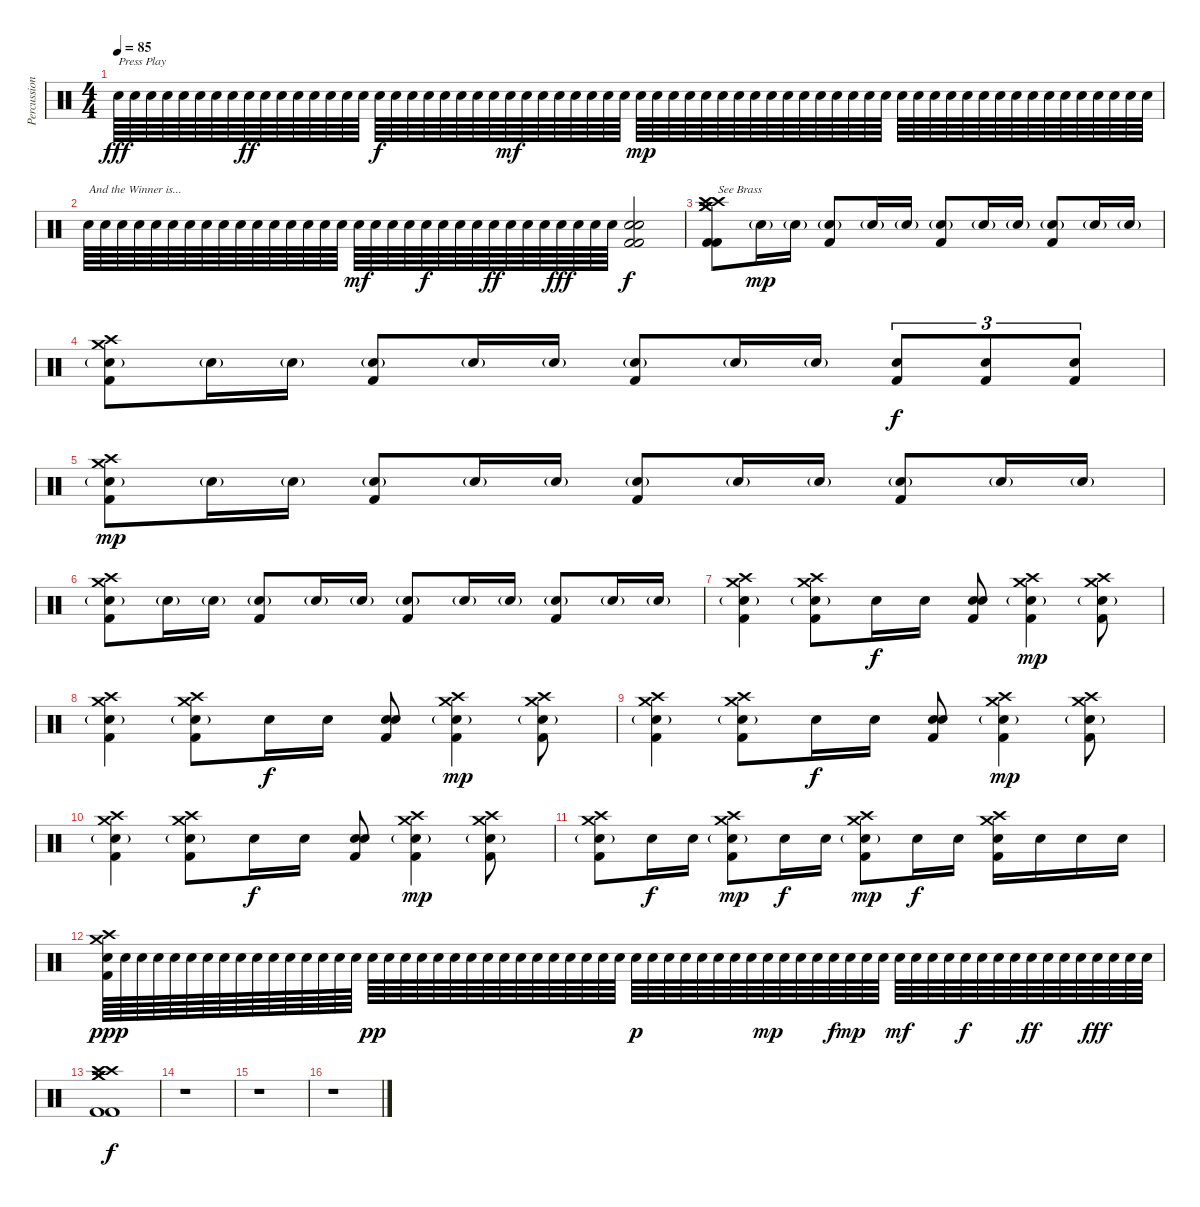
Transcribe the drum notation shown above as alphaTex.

\track ("Percussion" "Percussion") {instrument percussion}
\staff {score}
\articulation defaults
\ts (4 4)
\tempo 85
\clef neutral
\ks c "Snare (hit) 2".64{txt "Press Play" dy fff} "Snare (hit) 2".64 "Snare (hit) 2".64 "Snare (hit) 2".64 "Snare (hit) 2".64 "Snare (hit) 2".64 "Snare (hit) 2".64 "Snare (hit) 2".64 "Snare (hit) 2".64{dy ff} "Snare (hit) 2".64 "Snare (hit) 2".64 "Snare (hit) 2".64 "Snare (hit) 2".64 "Snare (hit) 2".64 "Snare (hit) 2".64 "Snare (hit) 2".64 "Snare (hit) 2".64{dy f} "Snare (hit) 2".64 "Snare (hit) 2".64 "Snare (hit) 2".64 "Snare (hit) 2".64 "Snare (hit) 2".64 "Snare (hit) 2".64 "Snare (hit) 2".64 "Snare (hit) 2".64{dy mf} "Snare (hit) 2".64 "Snare (hit) 2".64 "Snare (hit) 2".64 "Snare (hit) 2".64 "Snare (hit) 2".64 "Snare (hit) 2".64 "Snare (hit) 2".64 "Snare (hit) 2".64{dy mp} "Snare (hit) 2".64 "Snare (hit) 2".64 "Snare (hit) 2".64 "Snare (hit) 2".64 "Snare (hit) 2".64 "Snare (hit) 2".64 "Snare (hit) 2".64 "Snare (hit) 2".64 "Snare (hit) 2".64 "Snare (hit) 2".64 "Snare (hit) 2".64 "Snare (hit) 2".64 "Snare (hit) 2".64 "Snare (hit) 2".64 "Snare (hit) 2".64 "Snare (hit) 2".64 "Snare (hit) 2".64 "Snare (hit) 2".64 "Snare (hit) 2".64 "Snare (hit) 2".64 "Snare (hit) 2".64 "Snare (hit) 2".64 "Snare (hit) 2".64 "Snare (hit) 2".64 "Snare (hit) 2".64 "Snare (hit) 2".64 "Snare (hit) 2".64 "Snare (hit) 2".64 "Snare (hit) 2".64 "Snare (hit) 2".64 "Snare (hit) 2".64
|
"Snare (hit) 2".64{txt "And the Winner is..."} "Snare (hit) 2".64 "Snare (hit) 2".64 "Snare (hit) 2".64 "Snare (hit) 2".64 "Snare (hit) 2".64 "Snare (hit) 2".64 "Snare (hit) 2".64 "Snare (hit) 2".64 "Snare (hit) 2".64 "Snare (hit) 2".64 "Snare (hit) 2".64 "Snare (hit) 2".64 "Snare (hit) 2".64 "Snare (hit) 2".64 "Snare (hit) 2".64 "Snare (hit) 2".64{dy mf} "Snare (hit) 2".64 "Snare (hit) 2".64 "Snare (hit) 2".64 "Snare (hit) 2".64{dy f} "Snare (hit) 2".64 "Snare (hit) 2".64 "Snare (hit) 2".64 "Snare (hit) 2".64{dy ff} "Snare (hit) 2".64 "Snare (hit) 2".64 "Snare (hit) 2".64 "Snare (hit) 2".64{dy fff} "Snare (hit) 2".64 "Snare (hit) 2".64 "Snare (hit) 2".64 ("Snare (hit) 2" "Snare (hit) 2" "Kick (hit) 2" "Kick (hit) 2").2{dy f} |
("Crash high (hit)" "Crash high (hit)" "Crash medium (hit)" "Crash medium (hit)" "Kick (hit) 2" "Kick (hit) 2").8{txt "See Brass"} "Snare (hit) 2"{g}.16{dy mp} "Snare (hit) 2"{g}.16 ("Snare (hit) 2"{g} "Kick (hit) 2").8 "Snare (hit) 2"{g}.16 "Snare (hit) 2"{g}.16 ("Snare (hit) 2"{g} "Kick (hit) 2").8 "Snare (hit) 2"{g}.16 "Snare (hit) 2"{g}.16 ("Snare (hit) 2"{g} "Kick (hit) 2").8 "Snare (hit) 2"{g}.16 "Snare (hit) 2"{g}.16 |
("Crash high (hit)" "Crash medium (hit)" "Snare (hit) 2"{g} "Kick (hit) 2").8 "Snare (hit) 2"{g}.16 "Snare (hit) 2"{g}.16 ("Snare (hit) 2"{g} "Kick (hit) 2").8 "Snare (hit) 2"{g}.16 "Snare (hit) 2"{g}.16 ("Snare (hit) 2"{g} "Kick (hit) 2").8 "Snare (hit) 2"{g}.16 "Snare (hit) 2"{g}.16 ("Snare (hit) 2" "Kick (hit) 2").8{tu (3 2) dy f} ("Snare (hit) 2" "Kick (hit) 2").8{tu (3 2)} ("Snare (hit) 2" "Kick (hit) 2").8{tu (3 2)} |
("Crash high (hit)" "Crash medium (hit)" "Snare (hit) 2"{g} "Kick (hit) 2").8{dy mp} "Snare (hit) 2"{g}.16 "Snare (hit) 2"{g}.16 ("Snare (hit) 2"{g} "Kick (hit) 2").8 "Snare (hit) 2"{g}.16 "Snare (hit) 2"{g}.16 ("Snare (hit) 2"{g} "Kick (hit) 2").8 "Snare (hit) 2"{g}.16 "Snare (hit) 2"{g}.16 ("Snare (hit) 2"{g} "Kick (hit) 2").8 "Snare (hit) 2"{g}.16 "Snare (hit) 2"{g}.16 |
("Crash high (hit)" "Crash medium (hit)" "Snare (hit) 2"{g} "Kick (hit) 2").8 "Snare (hit) 2"{g}.16 "Snare (hit) 2"{g}.16 ("Snare (hit) 2"{g} "Kick (hit) 2").8 "Snare (hit) 2"{g}.16 "Snare (hit) 2"{g}.16 ("Snare (hit) 2"{g} "Kick (hit) 2").8 "Snare (hit) 2"{g}.16 "Snare (hit) 2"{g}.16 ("Snare (hit) 2"{g} "Kick (hit) 2").8 "Snare (hit) 2"{g}.16 "Snare (hit) 2"{g}.16 |
("Crash high (hit)" "Crash medium (hit)" "Snare (hit) 2"{g} "Kick (hit) 2").4 ("Crash high (hit)" "Crash medium (hit)" "Snare (hit) 2"{g} "Kick (hit) 2").8 "Snare (hit) 2".16{dy f} "Snare (hit) 2".16 ("Snare (hit) 2" "Snare (hit) 2" "Kick (hit) 2").8 ("Crash high (hit)" "Crash medium (hit)" "Snare (hit) 2"{g} "Kick (hit) 2").4{dy mp} ("Crash high (hit)" "Crash medium (hit)" "Snare (hit) 2"{g} "Kick (hit) 2").8 |
("Crash high (hit)" "Crash medium (hit)" "Snare (hit) 2"{g} "Kick (hit) 2").4 ("Crash high (hit)" "Crash medium (hit)" "Snare (hit) 2"{g} "Kick (hit) 2").8 "Snare (hit) 2".16{dy f} "Snare (hit) 2".16 ("Snare (hit) 2" "Snare (hit) 2" "Kick (hit) 2").8 ("Crash high (hit)" "Crash medium (hit)" "Snare (hit) 2"{g} "Kick (hit) 2").4{dy mp} ("Crash high (hit)" "Crash medium (hit)" "Snare (hit) 2"{g} "Kick (hit) 2").8 |
("Crash high (hit)" "Crash medium (hit)" "Snare (hit) 2"{g} "Kick (hit) 2").4 ("Crash high (hit)" "Crash medium (hit)" "Snare (hit) 2"{g} "Kick (hit) 2").8 "Snare (hit) 2".16{dy f} "Snare (hit) 2".16 ("Snare (hit) 2" "Snare (hit) 2" "Kick (hit) 2").8 ("Crash high (hit)" "Crash medium (hit)" "Snare (hit) 2"{g} "Kick (hit) 2").4{dy mp} ("Crash high (hit)" "Crash medium (hit)" "Snare (hit) 2"{g} "Kick (hit) 2").8 |
("Crash high (hit)" "Crash medium (hit)" "Snare (hit) 2"{g} "Kick (hit) 2").4 ("Crash high (hit)" "Crash medium (hit)" "Snare (hit) 2"{g} "Kick (hit) 2").8 "Snare (hit) 2".16{dy f} "Snare (hit) 2".16 ("Snare (hit) 2" "Snare (hit) 2" "Kick (hit) 2").8 ("Crash high (hit)" "Crash medium (hit)" "Snare (hit) 2"{g} "Kick (hit) 2").4{dy mp} ("Crash high (hit)" "Crash medium (hit)" "Snare (hit) 2"{g} "Kick (hit) 2").8 |
("Crash high (hit)" "Crash medium (hit)" "Snare (hit) 2"{g} "Kick (hit) 2").8 "Snare (hit) 2".16{dy f} "Snare (hit) 2".16 ("Crash high (hit)" "Crash medium (hit)" "Snare (hit) 2"{g} "Kick (hit) 2").8{dy mp} "Snare (hit) 2".16{dy f} "Snare (hit) 2".16 ("Crash high (hit)" "Crash medium (hit)" "Snare (hit) 2"{g} "Kick (hit) 2").8{dy mp} "Snare (hit) 2".16{dy f} "Snare (hit) 2".16 ("Crash high (hit)" "Crash medium (hit)" "Snare (hit) 2" "Kick (hit) 2").16 "Snare (hit) 2".16 "Snare (hit) 2".16 "Snare (hit) 2".16 |
("Crash high (hit)" "Crash medium (hit)" "Snare (hit) 2" "Kick (hit) 2").64{dy ppp} "Snare (hit) 2".64 "Snare (hit) 2".64 "Snare (hit) 2".64 "Snare (hit) 2".64 "Snare (hit) 2".64 "Snare (hit) 2".64 "Snare (hit) 2".64 "Snare (hit) 2".64 "Snare (hit) 2".64 "Snare (hit) 2".64 "Snare (hit) 2".64 "Snare (hit) 2".64 "Snare (hit) 2".64 "Snare (hit) 2".64 "Snare (hit) 2".64 "Snare (hit) 2".64{dy pp} "Snare (hit) 2".64 "Snare (hit) 2".64 "Snare (hit) 2".64 "Snare (hit) 2".64 "Snare (hit) 2".64 "Snare (hit) 2".64 "Snare (hit) 2".64 "Snare (hit) 2".64 "Snare (hit) 2".64 "Snare (hit) 2".64 "Snare (hit) 2".64 "Snare (hit) 2".64 "Snare (hit) 2".64 "Snare (hit) 2".64 "Snare (hit) 2".64 "Snare (hit) 2".64{dy p} "Snare (hit) 2".64 "Snare (hit) 2".64 "Snare (hit) 2".64 "Snare (hit) 2".64 "Snare (hit) 2".64 "Snare (hit) 2".64 "Snare (hit) 2".64 "Snare (hit) 2".64{dy mp} "Snare (hit) 2".64 "Snare (hit) 2".64 "Snare (hit) 2".64 "Snare (hit) 2".64{dy f} "Snare (hit) 2".64{dy mp} "Snare (hit) 2".64 "Snare (hit) 2".64 "Snare (hit) 2".64{dy mf} "Snare (hit) 2".64 "Snare (hit) 2".64 "Snare (hit) 2".64 "Snare (hit) 2".64{dy f} "Snare (hit) 2".64 "Snare (hit) 2".64 "Snare (hit) 2".64 "Snare (hit) 2".64{dy ff} "Snare (hit) 2".64 "Snare (hit) 2".64 "Snare (hit) 2".64 "Snare (hit) 2".64{dy fff} "Snare (hit) 2".64 "Snare (hit) 2".64 "Snare (hit) 2".64 |
("Crash high (hit)" "Crash high (hit)" "Crash medium (hit)" "Crash medium (hit)" "Kick (hit) 2" "Kick (hit) 2").1{dy f} |
r.1 |
r.1 |
r.1
